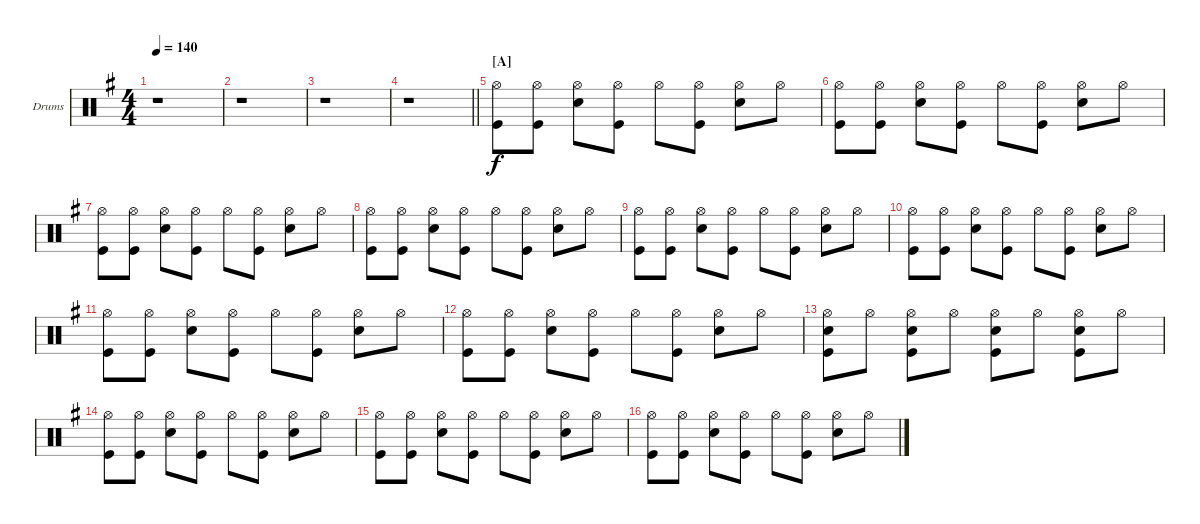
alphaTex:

\bracketExtendMode groupsimilarinstruments
\firstSystemTrackNameOrientation horizontal
\otherSystemsTrackNameOrientation horizontal
\track ("Fabrizio Moretti" "Drums") {instrument percussion}
\staff {score}
\articulation defaults
\ts (4 4)
\tempo 140
\clef neutral
\ks g
r.1{dy f} |
r.1 |
r.1 |
\barLineRight lightlight
r.1 |
\section ("A" "")
("Hi-Hat (open)" "Kick (hit)").8 ("Hi-Hat (open)" "Kick (hit)").8 ("Hi-Hat (open)" "Snare (hit) 2").8 ("Hi-Hat (open)" "Kick (hit)").8 "Hi-Hat (open)".8 ("Hi-Hat (open)" "Kick (hit)").8 ("Hi-Hat (open)" "Snare (hit) 2").8 "Hi-Hat (open)".8 |
("Hi-Hat (open)" "Kick (hit)").8 ("Hi-Hat (open)" "Kick (hit)").8 ("Hi-Hat (open)" "Snare (hit) 2").8 ("Hi-Hat (open)" "Kick (hit)").8 "Hi-Hat (open)".8 ("Hi-Hat (open)" "Kick (hit)").8 ("Hi-Hat (open)" "Snare (hit) 2").8 "Hi-Hat (open)".8 |
("Hi-Hat (open)" "Kick (hit)").8 ("Hi-Hat (open)" "Kick (hit)").8 ("Hi-Hat (open)" "Snare (hit) 2").8 ("Hi-Hat (open)" "Kick (hit)").8 "Hi-Hat (open)".8 ("Hi-Hat (open)" "Kick (hit)").8 ("Hi-Hat (open)" "Snare (hit) 2").8 "Hi-Hat (open)".8 |
("Hi-Hat (open)" "Kick (hit)").8 ("Hi-Hat (open)" "Kick (hit)").8 ("Hi-Hat (open)" "Snare (hit) 2").8 ("Hi-Hat (open)" "Kick (hit)").8 "Hi-Hat (open)".8 ("Hi-Hat (open)" "Kick (hit)").8 ("Hi-Hat (open)" "Snare (hit) 2").8 "Hi-Hat (open)".8 |
("Hi-Hat (open)" "Kick (hit)").8 ("Hi-Hat (open)" "Kick (hit)").8 ("Hi-Hat (open)" "Snare (hit) 2").8 ("Hi-Hat (open)" "Kick (hit)").8 "Hi-Hat (open)".8 ("Hi-Hat (open)" "Kick (hit)").8 ("Hi-Hat (open)" "Snare (hit) 2").8 "Hi-Hat (open)".8 |
("Hi-Hat (open)" "Kick (hit)").8 ("Hi-Hat (open)" "Kick (hit)").8 ("Hi-Hat (open)" "Snare (hit) 2").8 ("Hi-Hat (open)" "Kick (hit)").8 "Hi-Hat (open)".8 ("Hi-Hat (open)" "Kick (hit)").8 ("Hi-Hat (open)" "Snare (hit) 2").8 "Hi-Hat (open)".8 |
("Hi-Hat (open)" "Kick (hit)").8 ("Hi-Hat (open)" "Kick (hit)").8 ("Hi-Hat (open)" "Snare (hit) 2").8 ("Hi-Hat (open)" "Kick (hit)").8 "Hi-Hat (open)".8 ("Hi-Hat (open)" "Kick (hit)").8 ("Hi-Hat (open)" "Snare (hit) 2").8 "Hi-Hat (open)".8 |
("Hi-Hat (open)" "Kick (hit)").8 ("Hi-Hat (open)" "Kick (hit)").8 ("Hi-Hat (open)" "Snare (hit) 2").8 ("Hi-Hat (open)" "Kick (hit)").8 "Hi-Hat (open)".8 ("Hi-Hat (open)" "Kick (hit)").8 ("Hi-Hat (open)" "Snare (hit) 2").8 "Hi-Hat (open)".8 |
("Hi-Hat (open)" "Snare (hit) 2" "Kick (hit)").8 "Hi-Hat (open)".8 ("Hi-Hat (open)" "Snare (hit) 2" "Kick (hit)").8 "Hi-Hat (open)".8 ("Hi-Hat (open)" "Snare (hit) 2" "Kick (hit)").8 "Hi-Hat (open)".8 ("Hi-Hat (open)" "Snare (hit) 2" "Kick (hit)").8 "Hi-Hat (open)".8 |
("Hi-Hat (open)" "Kick (hit)").8 ("Hi-Hat (open)" "Kick (hit)").8 ("Hi-Hat (open)" "Snare (hit) 2").8 ("Hi-Hat (open)" "Kick (hit)").8 "Hi-Hat (open)".8 ("Hi-Hat (open)" "Kick (hit)").8 ("Hi-Hat (open)" "Snare (hit) 2").8 "Hi-Hat (open)".8 |
("Hi-Hat (open)" "Kick (hit)").8 ("Hi-Hat (open)" "Kick (hit)").8 ("Hi-Hat (open)" "Snare (hit) 2").8 ("Hi-Hat (open)" "Kick (hit)").8 "Hi-Hat (open)".8 ("Hi-Hat (open)" "Kick (hit)").8 ("Hi-Hat (open)" "Snare (hit) 2").8 "Hi-Hat (open)".8 |
("Hi-Hat (open)" "Kick (hit)").8 ("Hi-Hat (open)" "Kick (hit)").8 ("Hi-Hat (open)" "Snare (hit) 2").8 ("Hi-Hat (open)" "Kick (hit)").8 "Hi-Hat (open)".8 ("Hi-Hat (open)" "Kick (hit)").8 ("Hi-Hat (open)" "Snare (hit) 2").8 "Hi-Hat (open)".8
